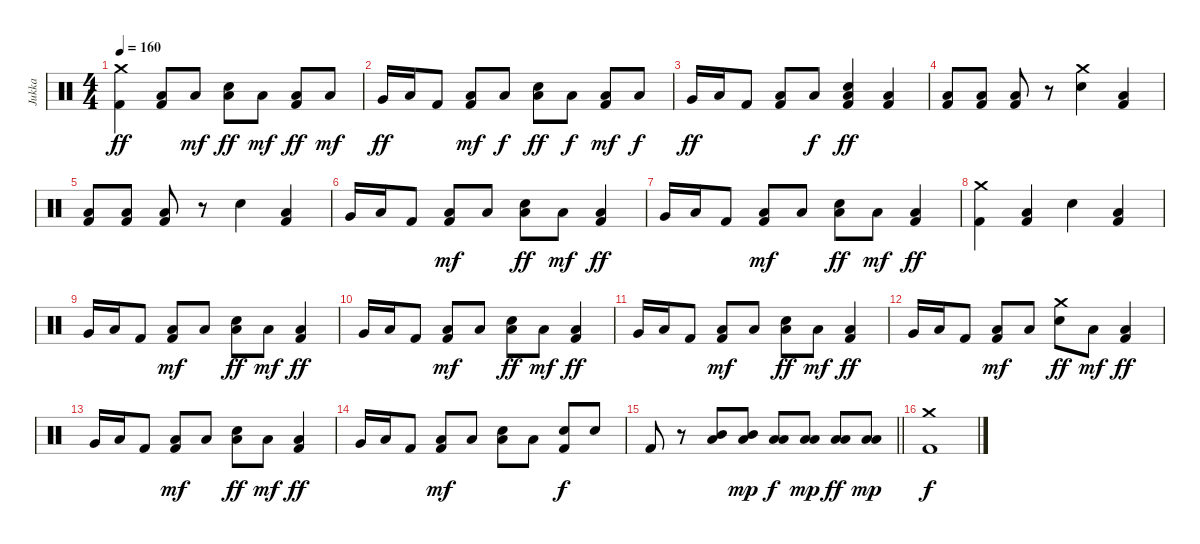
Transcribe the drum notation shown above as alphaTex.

\track ("Jukka" "Jukka") {instrument percussion}
\staff {score}
\articulation defaults
\ts (4 4)
\tempo 160
\clef neutral
\ks c
("Crash medium (hit)" "Kick (hit) 2").4{dy ff} ("Low Floor Tom (hit)" "Kick (hit) 2").8 "Low Floor Tom (hit)".8{dy mf} ("Low Floor Tom (hit)" "Snare (hit) 2").8{dy ff} "Low Floor Tom (hit)".8{dy mf} ("Low Floor Tom (hit)" "Kick (hit) 2").8{dy ff} "Low Floor Tom (hit)".8{dy mf} |
"Very Low Tom (hit)".16{dy ff} "Low Floor Tom (hit)".16 "Kick (hit) 2".8 ("Low Floor Tom (hit)" "Kick (hit) 2").8{dy mf} "Low Floor Tom (hit)".8{dy f} ("Low Floor Tom (hit)" "Snare (hit) 2").8{dy ff} "Low Floor Tom (hit)".8{dy f} ("Low Floor Tom (hit)" "Kick (hit) 2").8{dy mf} "Low Floor Tom (hit)".8{dy f} |
"Very Low Tom (hit)".16{dy ff} "Low Floor Tom (hit)".16 "Kick (hit) 2".8 ("Low Floor Tom (hit)" "Kick (hit) 2").8 "Low Floor Tom (hit)".8{dy f} ("Low Floor Tom (hit)" "Snare (hit) 2" "Kick (hit) 2").4{dy ff} ("Low Floor Tom (hit)" "Kick (hit) 2").4 |
("Low Floor Tom (hit)" "Kick (hit) 2").8 ("Low Floor Tom (hit)" "Kick (hit) 2").8 ("Low Floor Tom (hit)" "Kick (hit) 2").8 r.8 ("Crash medium (hit)" "Snare (hit) 2").4 ("Low Floor Tom (hit)" "Kick (hit) 2").4 |
("Low Floor Tom (hit)" "Kick (hit) 2").8 ("Low Floor Tom (hit)" "Kick (hit) 2").8 ("Low Floor Tom (hit)" "Kick (hit) 2").8 r.8 "Snare (hit) 2".4 ("Low Floor Tom (hit)" "Kick (hit) 2").4 |
"Very Low Tom (hit)".16 "Low Floor Tom (hit)".16 "Kick (hit) 2".8 ("Low Floor Tom (hit)" "Kick (hit) 2").8{dy mf} "Low Floor Tom (hit)".8 ("Low Floor Tom (hit)" "Snare (hit) 2").8{dy ff} "Low Floor Tom (hit)".8{dy mf} ("Low Floor Tom (hit)" "Kick (hit) 2").4{dy ff} |
"Very Low Tom (hit)".16 "Low Floor Tom (hit)".16 "Kick (hit) 2".8 ("Low Floor Tom (hit)" "Kick (hit) 2").8{dy mf} "Low Floor Tom (hit)".8 ("Low Floor Tom (hit)" "Snare (hit) 2").8{dy ff} "Low Floor Tom (hit)".8{dy mf} ("Low Floor Tom (hit)" "Kick (hit) 2").4{dy ff} |
("Crash medium (hit)" "Kick (hit) 2").4 ("Low Floor Tom (hit)" "Kick (hit) 2").4 "Snare (hit) 2".4 ("Low Floor Tom (hit)" "Kick (hit) 2").4 |
"Very Low Tom (hit)".16 "Low Floor Tom (hit)".16 "Kick (hit) 2".8 ("Low Floor Tom (hit)" "Kick (hit) 2").8{dy mf} "Low Floor Tom (hit)".8 ("Low Floor Tom (hit)" "Snare (hit) 2").8{dy ff} "Low Floor Tom (hit)".8{dy mf} ("Low Floor Tom (hit)" "Kick (hit) 2").4{dy ff} |
"Very Low Tom (hit)".16 "Low Floor Tom (hit)".16 "Kick (hit) 2".8 ("Low Floor Tom (hit)" "Kick (hit) 2").8{dy mf} "Low Floor Tom (hit)".8 ("Low Floor Tom (hit)" "Snare (hit) 2").8{dy ff} "Low Floor Tom (hit)".8{dy mf} ("Low Floor Tom (hit)" "Kick (hit) 2").4{dy ff} |
"Very Low Tom (hit)".16 "Low Floor Tom (hit)".16 "Kick (hit) 2".8 ("Low Floor Tom (hit)" "Kick (hit) 2").8{dy mf} "Low Floor Tom (hit)".8 ("Low Floor Tom (hit)" "Snare (hit) 2").8{dy ff} "Low Floor Tom (hit)".8{dy mf} ("Low Floor Tom (hit)" "Kick (hit) 2").4{dy ff} |
"Very Low Tom (hit)".16 "Low Floor Tom (hit)".16 "Kick (hit) 2".8 ("Low Floor Tom (hit)" "Kick (hit) 2").8{dy mf} "Low Floor Tom (hit)".8 ("Crash medium (hit)" "Snare (hit) 2").8{dy ff} "Low Floor Tom (hit)".8{dy mf} ("Low Floor Tom (hit)" "Kick (hit) 2").4{dy ff} |
"Very Low Tom (hit)".16 "Low Floor Tom (hit)".16 "Kick (hit) 2".8 ("Low Floor Tom (hit)" "Kick (hit) 2").8{dy mf} "Low Floor Tom (hit)".8 ("Low Floor Tom (hit)" "Snare (hit) 2").8{dy ff} "Low Floor Tom (hit)".8{dy mf} ("Low Floor Tom (hit)" "Kick (hit) 2").4{dy ff} |
"Very Low Tom (hit)".16 "Low Floor Tom (hit)".16 "Kick (hit) 2".8 ("Low Floor Tom (hit)" "Kick (hit) 2").8{dy mf} "Low Floor Tom (hit)".8 ("Low Floor Tom (hit)" "Snare (hit) 2").8 "Low Floor Tom (hit)".8 ("Snare (hit) 2" "Kick (hit) 2").8{dy f} "Snare (hit) 2".8 |
\barLineRight lightlight "Kick (hit) 2".8
r.8 ("Mid Tom (hit)" "Low Tom (hit)").8 ("Mid Tom (hit)" "Low Tom (hit)").8{dy mp} ("Low Tom (hit)" "Low Floor Tom (hit)").8{dy f} ("Low Tom (hit)" "Low Floor Tom (hit)").8{dy mp} ("Low Floor Tom (hit)" "Low Floor Tom (hit)").8{dy ff} ("Low Floor Tom (hit)" "Low Floor Tom (hit)").8{dy mp} |
("Crash medium (hit)" "Kick (hit) 2").1{dy f}
